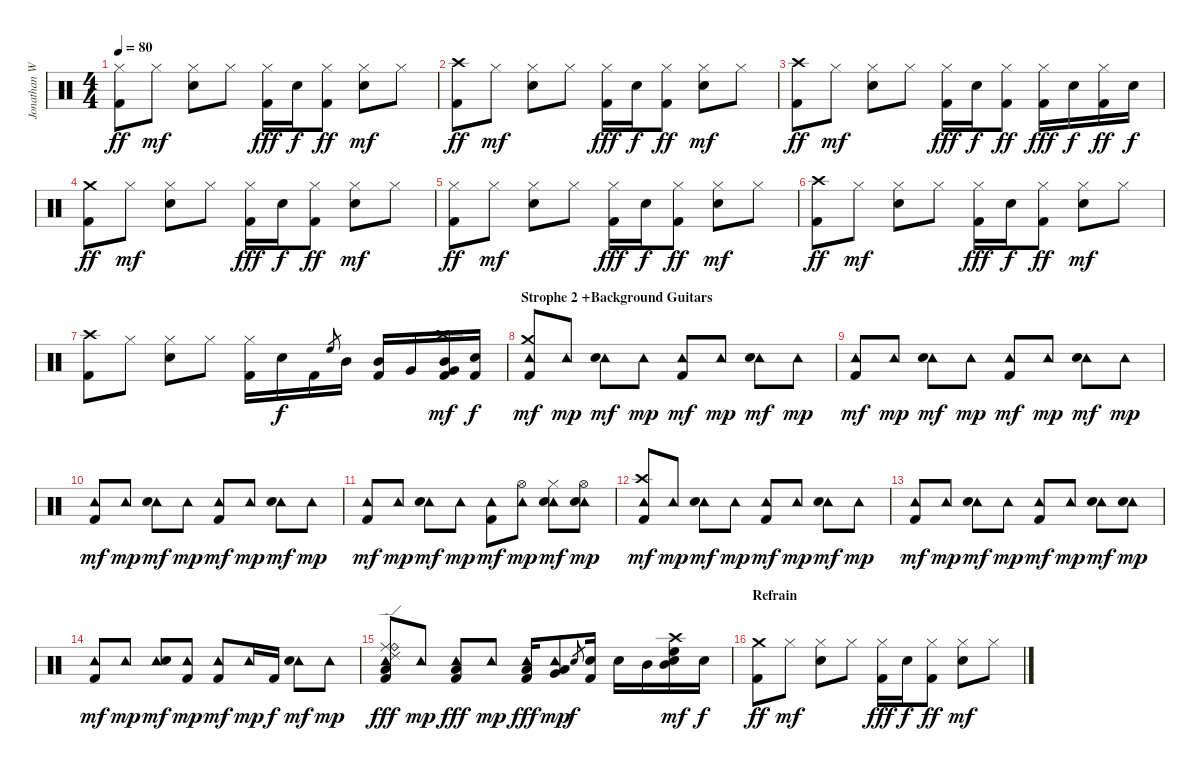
\track ("Jonathan Wenzel" "Jonathan W") {instrument percussion}
\staff {score}
\articulation defaults
\ts (4 4)
\tempo 80
\clef neutral
\ks c
("Hi-Hat (closed)" "Kick (hit) 2").8{dy ff} "Hi-Hat (closed)".8{dy mf} ("Hi-Hat (closed)" "Electric Snare (hit)").8 "Hi-Hat (closed)".8 ("Hi-Hat (closed)" "Kick (hit) 2").16{dy fff} "Electric Snare (hit)".16{dy f} ("Hi-Hat (closed)" "Kick (hit) 2").8{dy ff} ("Hi-Hat (closed)" "Electric Snare (hit)").8{dy mf} "Hi-Hat (closed)".8 |
("Crash high (hit)" "Kick (hit) 2").8{dy ff} "Hi-Hat (closed)".8{dy mf} ("Hi-Hat (closed)" "Electric Snare (hit)").8 "Hi-Hat (closed)".8 ("Hi-Hat (closed)" "Kick (hit) 2").16{dy fff} "Electric Snare (hit)".16{dy f} ("Hi-Hat (closed)" "Kick (hit) 2").8{dy ff} ("Hi-Hat (closed)" "Electric Snare (hit)").8{dy mf} "Hi-Hat (closed)".8 |
("Crash high (hit)" "Kick (hit) 2").8{dy ff} "Hi-Hat (closed)".8{dy mf} ("Hi-Hat (closed)" "Electric Snare (hit)").8 "Hi-Hat (closed)".8 ("Hi-Hat (closed)" "Kick (hit) 2").16{dy fff} "Electric Snare (hit)".16{dy f} ("Hi-Hat (closed)" "Kick (hit) 2").8{dy ff} ("Hi-Hat (closed)" "Kick (hit) 2").16{dy fff} "Electric Snare (hit)".16{dy f} ("Hi-Hat (closed)" "Kick (hit) 2").16{dy ff} "Electric Snare (hit)".16{dy f} |
("Crash medium (hit)" "Kick (hit) 2").8{dy ff} "Hi-Hat (closed)".8{dy mf} ("Hi-Hat (closed)" "Electric Snare (hit)").8 "Hi-Hat (closed)".8 ("Hi-Hat (closed)" "Kick (hit) 2").16{dy fff} "Electric Snare (hit)".16{dy f} ("Hi-Hat (closed)" "Kick (hit) 2").8{dy ff} ("Hi-Hat (closed)" "Electric Snare (hit)").8{dy mf} "Hi-Hat (closed)".8 |
("Hi-Hat (closed)" "Kick (hit) 2").8{dy ff} "Hi-Hat (closed)".8{dy mf} ("Hi-Hat (closed)" "Electric Snare (hit)").8 "Hi-Hat (closed)".8 ("Hi-Hat (closed)" "Kick (hit) 2").16{dy fff} "Electric Snare (hit)".16{dy f} ("Hi-Hat (closed)" "Kick (hit) 2").8{dy ff} ("Hi-Hat (closed)" "Electric Snare (hit)").8{dy mf} "Hi-Hat (closed)".8 |
("Crash high (hit)" "Kick (hit) 2").8{dy ff} "Hi-Hat (closed)".8{dy mf} ("Hi-Hat (closed)" "Electric Snare (hit)").8 "Hi-Hat (closed)".8 ("Hi-Hat (closed)" "Kick (hit) 2").16{dy fff} "Electric Snare (hit)".16{dy f} ("Hi-Hat (closed)" "Kick (hit) 2").8{dy ff} ("Hi-Hat (closed)" "Electric Snare (hit)").8{dy mf} "Hi-Hat (closed)".8 |
("Crash high (hit)" "Kick (hit) 2").8 "Hi-Hat (closed)".8 ("Hi-Hat (closed)" "Electric Snare (hit)").8 "Hi-Hat (closed)".8 ("Hi-Hat (closed)" "Kick (hit) 2").16 "Electric Snare (hit)".16{dy f} "Kick (hit) 2".16 "High Floor Tom (hit)".8{gr} "Mid Tom (hit)".16 ("Mid Tom (hit)" "Kick (hit) 2").16 "Very Low Tom (hit)".16 ("Crash high (hit)" "Mid Tom (hit)" "Very Low Tom (hit)" "Kick (hit) 2").16{dy mf} ("Electric Snare (hit)" "Kick (hit) 2").16{dy f} |
\section ("" "Strophe 2 +Background Guitars")
("Tambourine (hit)" "Crash medium (hit)" "Kick (hit) 2").8{dy mf} "Tambourine (hit)".8{dy mp} ("Tambourine (hit)" "Electric Snare (hit)").8{dy mf} "Tambourine (hit)".8{dy mp} ("Tambourine (hit)" "Kick (hit) 2").8{dy mf} "Tambourine (hit)".8{dy mp} ("Tambourine (hit)" "Electric Snare (hit)").8{dy mf} "Tambourine (hit)".8{dy mp} |
("Tambourine (hit)" "Kick (hit) 2").8{dy mf} "Tambourine (hit)".8{dy mp} ("Tambourine (hit)" "Electric Snare (hit)").8{dy mf} "Tambourine (hit)".8{dy mp} ("Tambourine (hit)" "Kick (hit) 2").8{dy mf} "Tambourine (hit)".8{dy mp} ("Tambourine (hit)" "Electric Snare (hit)").8{dy mf} "Tambourine (hit)".8{dy mp} |
("Tambourine (hit)" "Kick (hit) 2").8{dy mf} "Tambourine (hit)".8{dy mp} ("Tambourine (hit)" "Electric Snare (hit)").8{dy mf} "Tambourine (hit)".8{dy mp} ("Tambourine (hit)" "Kick (hit) 2").8{dy mf} "Tambourine (hit)".8{dy mp} ("Tambourine (hit)" "Electric Snare (hit)").8{dy mf} "Tambourine (hit)".8{dy mp} |
("Tambourine (hit)" "Kick (hit) 2").8{dy mf} "Tambourine (hit)".8{dy mp} ("Tambourine (hit)" "Electric Snare (hit)").8{dy mf} "Tambourine (hit)".8{dy mp} ("Tambourine (hit)" "Kick (hit) 2").8{dy mf} ("Tambourine (hit)" "Hi-Hat (open)").8{dy mp} ("Tambourine (hit)" "Hi-Hat (closed)" "Electric Snare (hit)").8{dy mf} ("Tambourine (hit)" "Hi-Hat (open)" "Electric Snare (hit)").8{dy mp} |
("Tambourine (hit)" "Crash high (hit)" "Kick (hit) 2").8{dy mf} "Tambourine (hit)".8{dy mp} ("Tambourine (hit)" "Electric Snare (hit)").8{dy mf} "Tambourine (hit)".8{dy mp} ("Tambourine (hit)" "Kick (hit) 2").8{dy mf} "Tambourine (hit)".8{dy mp} ("Tambourine (hit)" "Electric Snare (hit)").8{dy mf} "Tambourine (hit)".8{dy mp} |
("Tambourine (hit)" "Kick (hit) 2").8{dy mf} "Tambourine (hit)".8{dy mp} ("Tambourine (hit)" "Electric Snare (hit)").8{dy mf} "Tambourine (hit)".8{dy mp} ("Tambourine (hit)" "Kick (hit) 2").8{dy mf} "Tambourine (hit)".8{dy mp} ("Tambourine (hit)" "Electric Snare (hit)").8{dy mf} ("Tambourine (hit)" "Electric Snare (hit)").8{dy mp} |
("Tambourine (hit)" "Kick (hit) 2").8{dy mf} "Tambourine (hit)".8{dy mp} ("Tambourine (hit)" "Electric Snare (hit)").8{dy mf} ("Tambourine (hit)" "Kick (hit) 2").8{dy mp} ("Tambourine (hit)" "Kick (hit) 2").8{dy mf} "Tambourine (hit)".16{dy mp} "Kick (hit) 2".16{dy f} ("Tambourine (hit)" "Electric Snare (hit)").8{dy mf} "Tambourine (hit)".8{dy mp} |
("Ride (edge) 2" "Ride (middle)" "Tambourine (hit)" "Ride (bell)" "Low Floor Tom (hit)" "Kick (hit) 2").8{dy fff} "Tambourine (hit)".8{dy mp} ("Tambourine (hit)" "Low Floor Tom (hit)" "Kick (hit) 2").8{dy fff} "Tambourine (hit)".8{dy mp} ("Tambourine (hit)" "Low Floor Tom (hit)" "Kick (hit) 2").16{dy fff} ("Tambourine (hit)" "Low Floor Tom (hit)" "Very Low Tom (hit)").8{dy mp} "Electric Snare (hit)".8{gr dy f} ("Electric Snare (hit)" "Kick (hit) 2").16 "Electric Snare (hit)".16 "Mid Tom (hit)".16 ("Crash high (hit)" "High Floor Tom (hit)" "Mid Tom (hit)" "Electric Snare (hit)").16{dy mf} "Electric Snare (hit)".16{dy f} |
\section ("" "Refrain")
("Crash medium (hit)" "Kick (hit) 2").8{dy ff} "Hi-Hat (closed)".8{dy mf} ("Hi-Hat (closed)" "Electric Snare (hit)").8 "Hi-Hat (closed)".8 ("Hi-Hat (closed)" "Kick (hit) 2").16{dy fff} "Electric Snare (hit)".16{dy f} ("Hi-Hat (closed)" "Kick (hit) 2").8{dy ff} ("Hi-Hat (closed)" "Electric Snare (hit)").8{dy mf} "Hi-Hat (closed)".8
